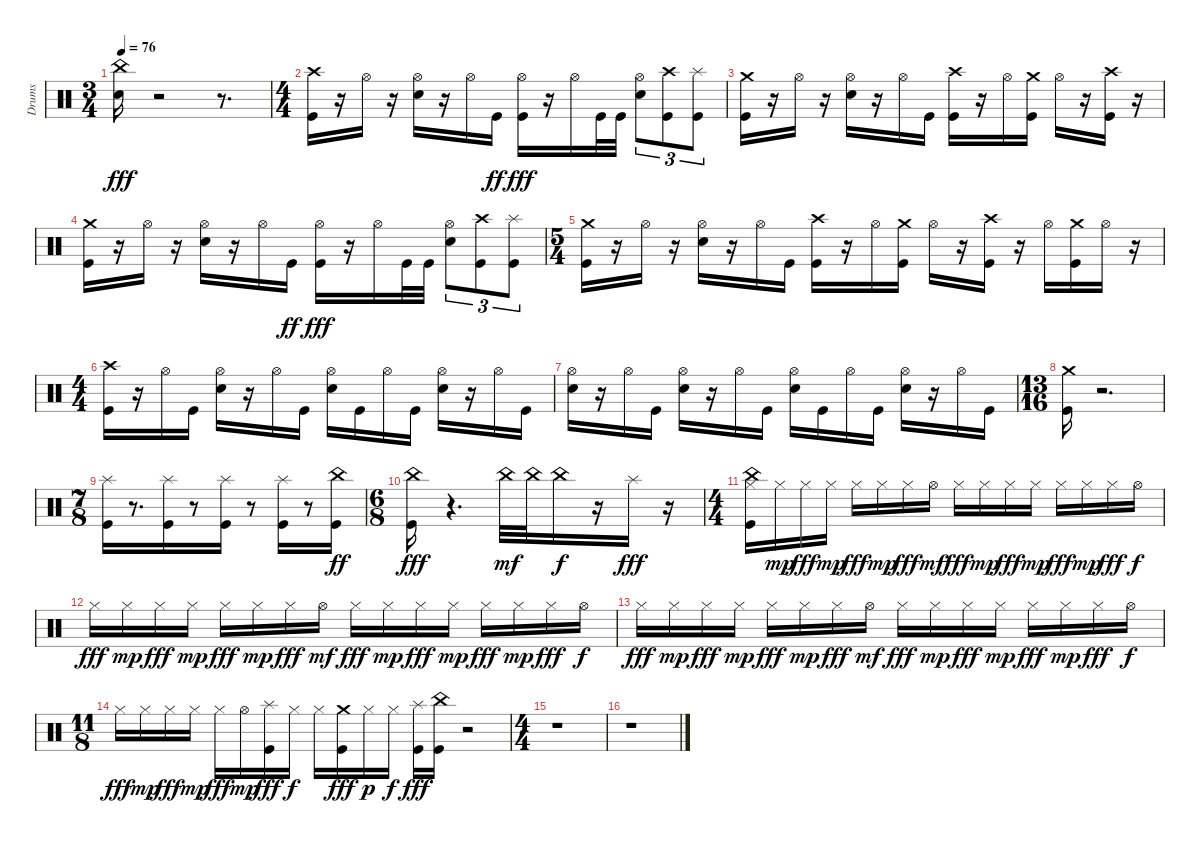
\track ("Drums" "Drums") {instrument percussion}
\staff {score}
\articulation defaults
\ts (3 4)
\tempo 76
\clef neutral
\ks c
("China (hit)" "Electric Snare (hit)").16{dy fff} r.2 r.8{d} |
\ts (4 4)
("Crash high (hit)" "Kick (hit)").16 r.16 "Hi-Hat (open)".16 r.16 ("Electric Snare (hit)" "Hi-Hat (open)").16 r.16 "Hi-Hat (open)".16 "Kick (hit)".16{dy ff} ("Kick (hit)" "Hi-Hat (open)").16{dy fff} r.16 "Hi-Hat (open)".16 "Kick (hit)".32 "Kick (hit)".32 ("Electric Snare (hit)" "Hi-Hat (open)").8{tu (3 2)} ("Crash high (hit)" "Kick (hit)").8{tu (3 2)} ("Splash (hit)" "Kick (hit)").8{tu (3 2)} |
("Crash medium (hit)" "Kick (hit)").16 r.16 "Hi-Hat (open)".16 r.16 ("Electric Snare (hit)" "Hi-Hat (open)").16 r.16 "Hi-Hat (open)".16 "Kick (hit)".16 ("Crash high (hit)" "Kick (hit)").16 r.16 "Hi-Hat (open)".16 ("Crash medium (hit)" "Kick (hit)").16 "Hi-Hat (open)".16 r.16 ("Kick (hit)" "Crash high (hit)").16 r.16 |
("Crash medium (hit)" "Kick (hit)").16 r.16 "Hi-Hat (open)".16 r.16 ("Hi-Hat (open)" "Electric Snare (hit)").16 r.16 "Hi-Hat (open)".16 "Kick (hit)".16{dy ff} ("Hi-Hat (open)" "Kick (hit)").16{dy fff} r.16 "Hi-Hat (open)".16 "Kick (hit)".32 "Kick (hit)".32 ("Hi-Hat (open)" "Electric Snare (hit)").8{tu (3 2)} ("Kick (hit)" "Crash high (hit)").8{tu (3 2)} ("Kick (hit)" "Splash (hit)").8{tu (3 2)} |
\ts (5 4)
("Kick (hit)" "Crash medium (hit)").16 r.16 "Hi-Hat (open)".16 r.16 ("Hi-Hat (open)" "Electric Snare (hit)").16 r.16 "Hi-Hat (open)".16 "Kick (hit)".16 ("Kick (hit)" "Crash high (hit)").16 r.16 "Hi-Hat (open)".16 ("Kick (hit)" "Crash medium (hit)").16 "Hi-Hat (open)".16 r.16 ("Crash high (hit)" "Kick (hit)").16 r.16 "Hi-Hat (open)".16 ("Crash medium (hit)" "Kick (hit)").16 "Hi-Hat (open)".16 r.16 |
\ts (4 4)
("Crash high (hit)" "Kick (hit)").16 r.16 "Hi-Hat (open)".16 "Kick (hit)".16 ("Electric Snare (hit)" "Hi-Hat (open)").16 r.16 "Hi-Hat (open)".16 "Kick (hit)".16 ("Electric Snare (hit)" "Hi-Hat (open)").16 "Kick (hit)".16 "Hi-Hat (open)".16 "Kick (hit)".16 ("Electric Snare (hit)" "Hi-Hat (open)").16 r.16 "Hi-Hat (open)".16 "Kick (hit)".16 |
("Electric Snare (hit)" "Hi-Hat (open)").16 r.16 "Hi-Hat (open)".16 "Kick (hit)".16 ("Electric Snare (hit)" "Hi-Hat (open)").16 r.16 "Hi-Hat (open)".16 "Kick (hit)".16 ("Electric Snare (hit)" "Hi-Hat (open)").16 "Kick (hit)".16 "Hi-Hat (open)".16 "Kick (hit)".16 ("Electric Snare (hit)" "Hi-Hat (open)").16 r.16 "Hi-Hat (open)".16 "Kick (hit)".16 |
\ts (13 16)
("Crash medium (hit)" "Kick (hit)").16 r.2{d} |
\ts (7 8)
("Splash (hit)" "Kick (hit)").16{volume 16} r.8{d} ("Splash (hit)" "Kick (hit)").16 r.8 ("Splash (hit)" "Kick (hit)").16 r.8 ("Splash (hit)" "Kick (hit)").16 r.8 ("China (hit)" "Kick (hit)").16{dy ff} |
\ts (6 8)
("China (hit)" "Kick (hit)").16{dy fff} r.4{d} "China (hit)".32{dy mf} "China (hit)".32 "China (hit)".16{dy f} r.16 "Splash (hit)".16{dy fff} r.16 |
\ts (4 4)
("China (hit)" "Kick (hit)" "Hi-Hat (closed)").16 "Hi-Hat (closed)".16{dy mp} "Hi-Hat (closed)".16{dy fff} "Hi-Hat (closed)".16{dy mp} "Hi-Hat (closed)".16{dy fff} "Hi-Hat (closed)".16{dy mp} "Hi-Hat (closed)".16{dy fff} "Hi-Hat (open)".16{dy mf} "Hi-Hat (closed)".16{dy fff} "Hi-Hat (closed)".16{dy mp} "Hi-Hat (closed)".16{dy fff} "Hi-Hat (closed)".16{dy mp} "Hi-Hat (closed)".16{dy fff} "Hi-Hat (closed)".16{dy mp} "Hi-Hat (closed)".16{dy fff} "Hi-Hat (open)".16{dy f} |
"Hi-Hat (closed)".16{dy fff} "Hi-Hat (closed)".16{dy mp} "Hi-Hat (closed)".16{dy fff} "Hi-Hat (closed)".16{dy mp} "Hi-Hat (closed)".16{dy fff} "Hi-Hat (closed)".16{dy mp} "Hi-Hat (closed)".16{dy fff} "Hi-Hat (open)".16{dy mf} "Hi-Hat (closed)".16{dy fff} "Hi-Hat (closed)".16{dy mp} "Hi-Hat (closed)".16{dy fff} "Hi-Hat (closed)".16{dy mp} "Hi-Hat (closed)".16{dy fff} "Hi-Hat (closed)".16{dy mp} "Hi-Hat (closed)".16{dy fff} "Hi-Hat (open)".16{dy f} |
"Hi-Hat (closed)".16{dy fff} "Hi-Hat (closed)".16{dy mp} "Hi-Hat (closed)".16{dy fff} "Hi-Hat (closed)".16{dy mp} "Hi-Hat (closed)".16{dy fff} "Hi-Hat (closed)".16{dy mp} "Hi-Hat (closed)".16{dy fff} "Hi-Hat (open)".16{dy mf} "Hi-Hat (closed)".16{dy fff} "Hi-Hat (closed)".16{dy mp} "Hi-Hat (closed)".16{dy fff} "Hi-Hat (closed)".16{dy mp} "Hi-Hat (closed)".16{dy fff} "Hi-Hat (closed)".16{dy mp} "Hi-Hat (closed)".16{dy fff} "Hi-Hat (open)".16{dy f} |
\ts (11 8)
"Hi-Hat (closed)".16{dy fff} "Hi-Hat (closed)".16{dy mp} "Hi-Hat (closed)".16{dy fff} "Hi-Hat (closed)".16{dy mp} "Hi-Hat (closed)".16{dy fff} "Hi-Hat (open)".16{dy mp} ("Splash (hit)" "Kick (hit)").16{dy fff} "Hi-Hat (closed)".16{dy f} "Hi-Hat (closed)".16 ("Crash medium (hit)" "Kick (hit)").16{dy fff} "Hi-Hat (closed)".16{dy p} "Hi-Hat (closed)".16{dy f} ("Splash (hit)" "Kick (hit)").16{dy fff} ("China (hit)" "Kick (hit)").16 r.2 |
\ts (4 4)
r.1 |
r.1
